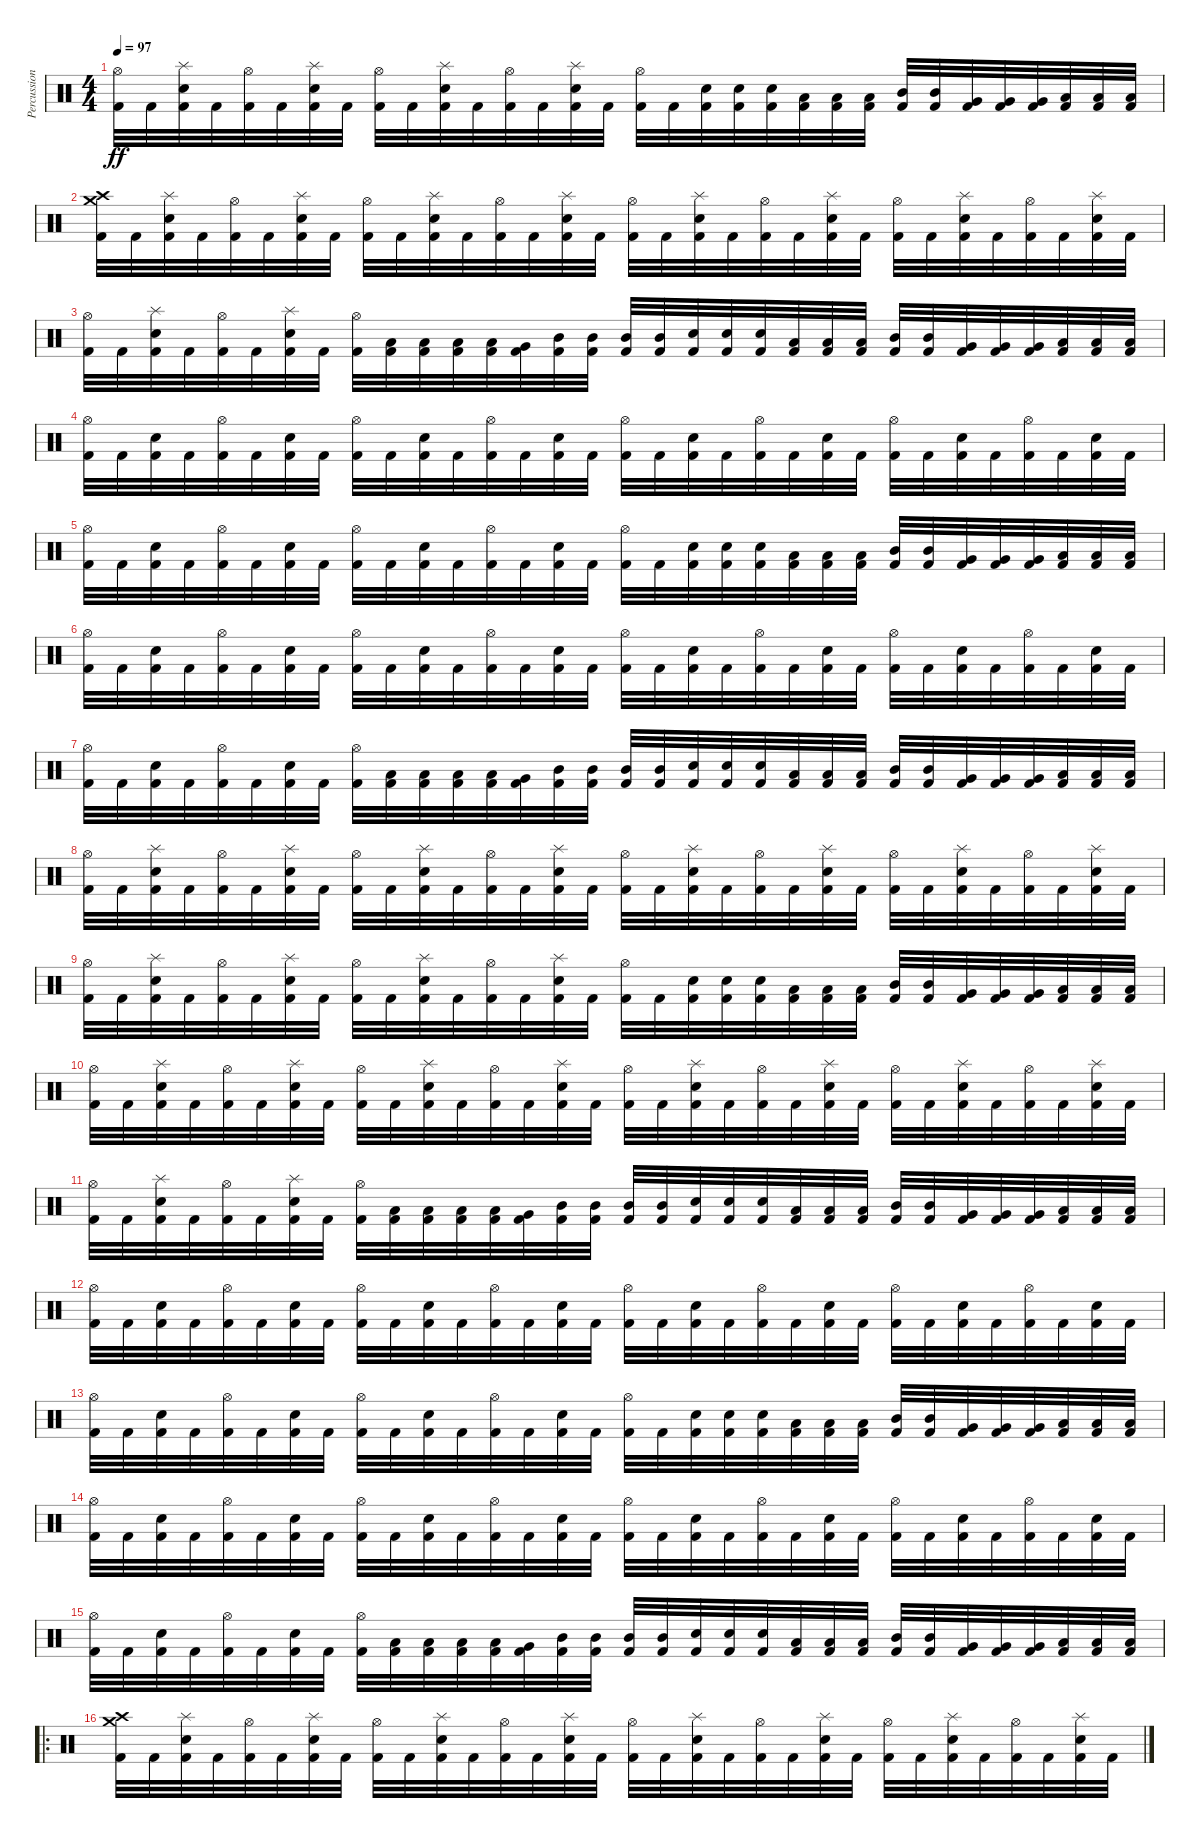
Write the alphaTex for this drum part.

\track ("Percussion" "Percussion") {instrument percussion}
\staff {score}
\articulation defaults
\ts (4 4)
\tempo 97
\clef neutral
\ks c
("Hi-Hat (open)" "Kick (hit) 2").32{dy ff} "Kick (hit) 2".32 ("Splash (hit)" "Snare (hit) 2" "Kick (hit) 2").32 "Kick (hit) 2".32 ("Hi-Hat (open)" "Kick (hit) 2").32 "Kick (hit) 2".32 ("Splash (hit)" "Snare (hit) 2" "Kick (hit) 2").32 "Kick (hit) 2".32 ("Hi-Hat (open)" "Kick (hit) 2").32 "Kick (hit) 2".32 ("Splash (hit)" "Snare (hit) 2" "Kick (hit) 2").32 "Kick (hit) 2".32 ("Hi-Hat (open)" "Kick (hit) 2").32 "Kick (hit) 2".32 ("Splash (hit)" "Snare (hit) 2" "Kick (hit) 2").32 "Kick (hit) 2".32 ("Hi-Hat (open)" "Kick (hit) 2").32 "Kick (hit) 2".32 ("Snare (hit) 2" "Kick (hit) 2").32 ("Snare (hit) 2" "Kick (hit) 2").32 ("Snare (hit) 2" "Kick (hit) 2").32 ("Low Tom (hit)" "Kick (hit) 2").32 ("Low Tom (hit)" "Kick (hit) 2").32 ("Low Tom (hit)" "Kick (hit) 2").32 ("Mid Tom (hit)" "Kick (hit) 2").32 ("Mid Tom (hit)" "Kick (hit) 2").32 ("Very Low Tom (hit)" "Kick (hit) 2").32 ("Very Low Tom (hit)" "Kick (hit) 2").32 ("Very Low Tom (hit)" "Kick (hit) 2").32 ("Low Floor Tom (hit)" "Kick (hit) 2").32 ("Low Floor Tom (hit)" "Kick (hit) 2").32 ("Low Floor Tom (hit)" "Kick (hit) 2").32 |
("Crash medium (hit)" "Crash high (hit)" "Kick (hit) 2").32 "Kick (hit) 2".32 ("Splash (hit)" "Snare (hit) 2" "Kick (hit) 2").32 "Kick (hit) 2".32 ("Hi-Hat (open)" "Kick (hit) 2").32 "Kick (hit) 2".32 ("Splash (hit)" "Snare (hit) 2" "Kick (hit) 2").32 "Kick (hit) 2".32 ("Hi-Hat (open)" "Kick (hit) 2").32 "Kick (hit) 2".32 ("Splash (hit)" "Snare (hit) 2" "Kick (hit) 2").32 "Kick (hit) 2".32 ("Hi-Hat (open)" "Kick (hit) 2").32 "Kick (hit) 2".32 ("Splash (hit)" "Snare (hit) 2" "Kick (hit) 2").32 "Kick (hit) 2".32 ("Hi-Hat (open)" "Kick (hit) 2").32 "Kick (hit) 2".32 ("Splash (hit)" "Snare (hit) 2" "Kick (hit) 2").32 "Kick (hit) 2".32 ("Hi-Hat (open)" "Kick (hit) 2").32 "Kick (hit) 2".32 ("Splash (hit)" "Snare (hit) 2" "Kick (hit) 2").32 "Kick (hit) 2".32 ("Hi-Hat (open)" "Kick (hit) 2").32 "Kick (hit) 2".32 ("Splash (hit)" "Snare (hit) 2" "Kick (hit) 2").32 "Kick (hit) 2".32 ("Hi-Hat (open)" "Kick (hit) 2").32 "Kick (hit) 2".32 ("Splash (hit)" "Snare (hit) 2" "Kick (hit) 2").32 "Kick (hit) 2".32 |
("Hi-Hat (open)" "Kick (hit) 2").32 "Kick (hit) 2".32 ("Splash (hit)" "Snare (hit) 2" "Kick (hit) 2").32 "Kick (hit) 2".32 ("Hi-Hat (open)" "Kick (hit) 2").32 "Kick (hit) 2".32 ("Splash (hit)" "Snare (hit) 2" "Kick (hit) 2").32 "Kick (hit) 2".32 ("Hi-Hat (open)" "Kick (hit) 2").32 ("Low Tom (hit)" "Kick (hit) 2").32 ("Low Floor Tom (hit)" "Kick (hit) 2").32 ("Low Floor Tom (hit)" "Kick (hit) 2").32 ("Low Floor Tom (hit)" "Kick (hit) 2").32 ("Very Low Tom (hit)" "Kick (hit) 2").32 ("Mid Tom (hit)" "Kick (hit) 2").32 ("Mid Tom (hit)" "Kick (hit) 2").32 ("Mid Tom (hit)" "Kick (hit) 2").32 ("Mid Tom (hit)" "Kick (hit) 2").32 ("Snare (hit) 2" "Kick (hit) 2").32 ("Snare (hit) 2" "Kick (hit) 2").32 ("Snare (hit) 2" "Kick (hit) 2").32 ("Low Tom (hit)" "Kick (hit) 2").32 ("Low Tom (hit)" "Kick (hit) 2").32 ("Low Tom (hit)" "Kick (hit) 2").32 ("Mid Tom (hit)" "Kick (hit) 2").32 ("Mid Tom (hit)" "Kick (hit) 2").32 ("Very Low Tom (hit)" "Kick (hit) 2").32 ("Very Low Tom (hit)" "Kick (hit) 2").32 ("Very Low Tom (hit)" "Kick (hit) 2").32 ("Low Floor Tom (hit)" "Kick (hit) 2").32 ("Low Floor Tom (hit)" "Kick (hit) 2").32 ("Low Floor Tom (hit)" "Kick (hit) 2").32 |
("Hi-Hat (open)" "Kick (hit) 2").32 "Kick (hit) 2".32 ("Snare (hit) 2" "Kick (hit) 2").32 "Kick (hit) 2".32 ("Hi-Hat (open)" "Kick (hit) 2").32 "Kick (hit) 2".32 ("Snare (hit) 2" "Kick (hit) 2").32 "Kick (hit) 2".32 ("Hi-Hat (open)" "Kick (hit) 2").32 "Kick (hit) 2".32 ("Snare (hit) 2" "Kick (hit) 2").32 "Kick (hit) 2".32 ("Hi-Hat (open)" "Kick (hit) 2").32 "Kick (hit) 2".32 ("Snare (hit) 2" "Kick (hit) 2").32 "Kick (hit) 2".32 ("Hi-Hat (open)" "Kick (hit) 2").32 "Kick (hit) 2".32 ("Snare (hit) 2" "Kick (hit) 2").32 "Kick (hit) 2".32 ("Hi-Hat (open)" "Kick (hit) 2").32 "Kick (hit) 2".32 ("Snare (hit) 2" "Kick (hit) 2").32 "Kick (hit) 2".32 ("Hi-Hat (open)" "Kick (hit) 2").32 "Kick (hit) 2".32 ("Snare (hit) 2" "Kick (hit) 2").32 "Kick (hit) 2".32 ("Hi-Hat (open)" "Kick (hit) 2").32 "Kick (hit) 2".32 ("Snare (hit) 2" "Kick (hit) 2").32 "Kick (hit) 2".32 |
("Hi-Hat (open)" "Kick (hit) 2").32 "Kick (hit) 2".32 ("Snare (hit) 2" "Kick (hit) 2").32 "Kick (hit) 2".32 ("Hi-Hat (open)" "Kick (hit) 2").32 "Kick (hit) 2".32 ("Snare (hit) 2" "Kick (hit) 2").32 "Kick (hit) 2".32 ("Hi-Hat (open)" "Kick (hit) 2").32 "Kick (hit) 2".32 ("Snare (hit) 2" "Kick (hit) 2").32 "Kick (hit) 2".32 ("Hi-Hat (open)" "Kick (hit) 2").32 "Kick (hit) 2".32 ("Snare (hit) 2" "Kick (hit) 2").32 "Kick (hit) 2".32 ("Hi-Hat (open)" "Kick (hit) 2").32 "Kick (hit) 2".32 ("Snare (hit) 2" "Kick (hit) 2").32 ("Snare (hit) 2" "Kick (hit) 2").32 ("Snare (hit) 2" "Kick (hit) 2").32 ("Low Tom (hit)" "Kick (hit) 2").32 ("Low Tom (hit)" "Kick (hit) 2").32 ("Low Tom (hit)" "Kick (hit) 2").32 ("Mid Tom (hit)" "Kick (hit) 2").32 ("Mid Tom (hit)" "Kick (hit) 2").32 ("Very Low Tom (hit)" "Kick (hit) 2").32 ("Very Low Tom (hit)" "Kick (hit) 2").32 ("Very Low Tom (hit)" "Kick (hit) 2").32 ("Low Floor Tom (hit)" "Kick (hit) 2").32 ("Low Floor Tom (hit)" "Kick (hit) 2").32 ("Low Floor Tom (hit)" "Kick (hit) 2").32 |
("Hi-Hat (open)" "Kick (hit) 2").32 "Kick (hit) 2".32 ("Snare (hit) 2" "Kick (hit) 2").32 "Kick (hit) 2".32 ("Hi-Hat (open)" "Kick (hit) 2").32 "Kick (hit) 2".32 ("Snare (hit) 2" "Kick (hit) 2").32 "Kick (hit) 2".32 ("Hi-Hat (open)" "Kick (hit) 2").32 "Kick (hit) 2".32 ("Snare (hit) 2" "Kick (hit) 2").32 "Kick (hit) 2".32 ("Hi-Hat (open)" "Kick (hit) 2").32 "Kick (hit) 2".32 ("Snare (hit) 2" "Kick (hit) 2").32 "Kick (hit) 2".32 ("Hi-Hat (open)" "Kick (hit) 2").32 "Kick (hit) 2".32 ("Snare (hit) 2" "Kick (hit) 2").32 "Kick (hit) 2".32 ("Hi-Hat (open)" "Kick (hit) 2").32 "Kick (hit) 2".32 ("Snare (hit) 2" "Kick (hit) 2").32 "Kick (hit) 2".32 ("Hi-Hat (open)" "Kick (hit) 2").32 "Kick (hit) 2".32 ("Snare (hit) 2" "Kick (hit) 2").32 "Kick (hit) 2".32 ("Hi-Hat (open)" "Kick (hit) 2").32 "Kick (hit) 2".32 ("Snare (hit) 2" "Kick (hit) 2").32 "Kick (hit) 2".32 |
("Hi-Hat (open)" "Kick (hit) 2").32 "Kick (hit) 2".32 ("Snare (hit) 2" "Kick (hit) 2").32 "Kick (hit) 2".32 ("Hi-Hat (open)" "Kick (hit) 2").32 "Kick (hit) 2".32 ("Snare (hit) 2" "Kick (hit) 2").32 "Kick (hit) 2".32 ("Hi-Hat (open)" "Kick (hit) 2").32 ("Low Tom (hit)" "Kick (hit) 2").32 ("Low Floor Tom (hit)" "Kick (hit) 2").32 ("Low Floor Tom (hit)" "Kick (hit) 2").32 ("Low Floor Tom (hit)" "Kick (hit) 2").32 ("Very Low Tom (hit)" "Kick (hit) 2").32 ("Mid Tom (hit)" "Kick (hit) 2").32 ("Mid Tom (hit)" "Kick (hit) 2").32 ("Mid Tom (hit)" "Kick (hit) 2").32 ("Mid Tom (hit)" "Kick (hit) 2").32 ("Snare (hit) 2" "Kick (hit) 2").32 ("Snare (hit) 2" "Kick (hit) 2").32 ("Snare (hit) 2" "Kick (hit) 2").32 ("Low Tom (hit)" "Kick (hit) 2").32 ("Low Tom (hit)" "Kick (hit) 2").32 ("Low Tom (hit)" "Kick (hit) 2").32 ("Mid Tom (hit)" "Kick (hit) 2").32 ("Mid Tom (hit)" "Kick (hit) 2").32 ("Very Low Tom (hit)" "Kick (hit) 2").32 ("Very Low Tom (hit)" "Kick (hit) 2").32 ("Very Low Tom (hit)" "Kick (hit) 2").32 ("Low Floor Tom (hit)" "Kick (hit) 2").32 ("Low Floor Tom (hit)" "Kick (hit) 2").32 ("Low Floor Tom (hit)" "Kick (hit) 2").32 |
("Hi-Hat (open)" "Kick (hit) 2").32 "Kick (hit) 2".32 ("Splash (hit)" "Snare (hit) 2" "Kick (hit) 2").32 "Kick (hit) 2".32 ("Hi-Hat (open)" "Kick (hit) 2").32 "Kick (hit) 2".32 ("Splash (hit)" "Snare (hit) 2" "Kick (hit) 2").32 "Kick (hit) 2".32 ("Hi-Hat (open)" "Kick (hit) 2").32 "Kick (hit) 2".32 ("Splash (hit)" "Snare (hit) 2" "Kick (hit) 2").32 "Kick (hit) 2".32 ("Hi-Hat (open)" "Kick (hit) 2").32 "Kick (hit) 2".32 ("Splash (hit)" "Snare (hit) 2" "Kick (hit) 2").32 "Kick (hit) 2".32 ("Hi-Hat (open)" "Kick (hit) 2").32 "Kick (hit) 2".32 ("Splash (hit)" "Snare (hit) 2" "Kick (hit) 2").32 "Kick (hit) 2".32 ("Hi-Hat (open)" "Kick (hit) 2").32 "Kick (hit) 2".32 ("Splash (hit)" "Snare (hit) 2" "Kick (hit) 2").32 "Kick (hit) 2".32 ("Hi-Hat (open)" "Kick (hit) 2").32 "Kick (hit) 2".32 ("Splash (hit)" "Snare (hit) 2" "Kick (hit) 2").32 "Kick (hit) 2".32 ("Hi-Hat (open)" "Kick (hit) 2").32 "Kick (hit) 2".32 ("Splash (hit)" "Snare (hit) 2" "Kick (hit) 2").32 "Kick (hit) 2".32 |
("Hi-Hat (open)" "Kick (hit) 2").32 "Kick (hit) 2".32 ("Splash (hit)" "Snare (hit) 2" "Kick (hit) 2").32 "Kick (hit) 2".32 ("Hi-Hat (open)" "Kick (hit) 2").32 "Kick (hit) 2".32 ("Splash (hit)" "Snare (hit) 2" "Kick (hit) 2").32 "Kick (hit) 2".32 ("Hi-Hat (open)" "Kick (hit) 2").32 "Kick (hit) 2".32 ("Splash (hit)" "Snare (hit) 2" "Kick (hit) 2").32 "Kick (hit) 2".32 ("Hi-Hat (open)" "Kick (hit) 2").32 "Kick (hit) 2".32 ("Splash (hit)" "Snare (hit) 2" "Kick (hit) 2").32 "Kick (hit) 2".32 ("Hi-Hat (open)" "Kick (hit) 2").32 "Kick (hit) 2".32 ("Snare (hit) 2" "Kick (hit) 2").32 ("Snare (hit) 2" "Kick (hit) 2").32 ("Snare (hit) 2" "Kick (hit) 2").32 ("Low Tom (hit)" "Kick (hit) 2").32 ("Low Tom (hit)" "Kick (hit) 2").32 ("Low Tom (hit)" "Kick (hit) 2").32 ("Mid Tom (hit)" "Kick (hit) 2").32 ("Mid Tom (hit)" "Kick (hit) 2").32 ("Very Low Tom (hit)" "Kick (hit) 2").32 ("Very Low Tom (hit)" "Kick (hit) 2").32 ("Very Low Tom (hit)" "Kick (hit) 2").32 ("Low Floor Tom (hit)" "Kick (hit) 2").32 ("Low Floor Tom (hit)" "Kick (hit) 2").32 ("Low Floor Tom (hit)" "Kick (hit) 2").32 |
("Hi-Hat (open)" "Kick (hit) 2").32 "Kick (hit) 2".32 ("Splash (hit)" "Snare (hit) 2" "Kick (hit) 2").32 "Kick (hit) 2".32 ("Hi-Hat (open)" "Kick (hit) 2").32 "Kick (hit) 2".32 ("Splash (hit)" "Snare (hit) 2" "Kick (hit) 2").32 "Kick (hit) 2".32 ("Hi-Hat (open)" "Kick (hit) 2").32 "Kick (hit) 2".32 ("Splash (hit)" "Snare (hit) 2" "Kick (hit) 2").32 "Kick (hit) 2".32 ("Hi-Hat (open)" "Kick (hit) 2").32 "Kick (hit) 2".32 ("Splash (hit)" "Snare (hit) 2" "Kick (hit) 2").32 "Kick (hit) 2".32 ("Hi-Hat (open)" "Kick (hit) 2").32 "Kick (hit) 2".32 ("Splash (hit)" "Snare (hit) 2" "Kick (hit) 2").32 "Kick (hit) 2".32 ("Hi-Hat (open)" "Kick (hit) 2").32 "Kick (hit) 2".32 ("Splash (hit)" "Snare (hit) 2" "Kick (hit) 2").32 "Kick (hit) 2".32 ("Hi-Hat (open)" "Kick (hit) 2").32 "Kick (hit) 2".32 ("Splash (hit)" "Snare (hit) 2" "Kick (hit) 2").32 "Kick (hit) 2".32 ("Hi-Hat (open)" "Kick (hit) 2").32 "Kick (hit) 2".32 ("Splash (hit)" "Snare (hit) 2" "Kick (hit) 2").32 "Kick (hit) 2".32 |
("Hi-Hat (open)" "Kick (hit) 2").32 "Kick (hit) 2".32 ("Splash (hit)" "Snare (hit) 2" "Kick (hit) 2").32 "Kick (hit) 2".32 ("Hi-Hat (open)" "Kick (hit) 2").32 "Kick (hit) 2".32 ("Splash (hit)" "Snare (hit) 2" "Kick (hit) 2").32 "Kick (hit) 2".32 ("Hi-Hat (open)" "Kick (hit) 2").32 ("Low Tom (hit)" "Kick (hit) 2").32 ("Low Floor Tom (hit)" "Kick (hit) 2").32 ("Low Floor Tom (hit)" "Kick (hit) 2").32 ("Low Floor Tom (hit)" "Kick (hit) 2").32 ("Very Low Tom (hit)" "Kick (hit) 2").32 ("Mid Tom (hit)" "Kick (hit) 2").32 ("Mid Tom (hit)" "Kick (hit) 2").32 ("Mid Tom (hit)" "Kick (hit) 2").32 ("Mid Tom (hit)" "Kick (hit) 2").32 ("Snare (hit) 2" "Kick (hit) 2").32 ("Snare (hit) 2" "Kick (hit) 2").32 ("Snare (hit) 2" "Kick (hit) 2").32 ("Low Tom (hit)" "Kick (hit) 2").32 ("Low Tom (hit)" "Kick (hit) 2").32 ("Low Tom (hit)" "Kick (hit) 2").32 ("Mid Tom (hit)" "Kick (hit) 2").32 ("Mid Tom (hit)" "Kick (hit) 2").32 ("Very Low Tom (hit)" "Kick (hit) 2").32 ("Very Low Tom (hit)" "Kick (hit) 2").32 ("Very Low Tom (hit)" "Kick (hit) 2").32 ("Low Floor Tom (hit)" "Kick (hit) 2").32 ("Low Floor Tom (hit)" "Kick (hit) 2").32 ("Low Floor Tom (hit)" "Kick (hit) 2").32 |
("Hi-Hat (open)" "Kick (hit) 2").32 "Kick (hit) 2".32 ("Snare (hit) 2" "Kick (hit) 2").32 "Kick (hit) 2".32 ("Hi-Hat (open)" "Kick (hit) 2").32 "Kick (hit) 2".32 ("Snare (hit) 2" "Kick (hit) 2").32 "Kick (hit) 2".32 ("Hi-Hat (open)" "Kick (hit) 2").32 "Kick (hit) 2".32 ("Snare (hit) 2" "Kick (hit) 2").32 "Kick (hit) 2".32 ("Hi-Hat (open)" "Kick (hit) 2").32 "Kick (hit) 2".32 ("Snare (hit) 2" "Kick (hit) 2").32 "Kick (hit) 2".32 ("Hi-Hat (open)" "Kick (hit) 2").32 "Kick (hit) 2".32 ("Snare (hit) 2" "Kick (hit) 2").32 "Kick (hit) 2".32 ("Hi-Hat (open)" "Kick (hit) 2").32 "Kick (hit) 2".32 ("Snare (hit) 2" "Kick (hit) 2").32 "Kick (hit) 2".32 ("Hi-Hat (open)" "Kick (hit) 2").32 "Kick (hit) 2".32 ("Snare (hit) 2" "Kick (hit) 2").32 "Kick (hit) 2".32 ("Hi-Hat (open)" "Kick (hit) 2").32 "Kick (hit) 2".32 ("Snare (hit) 2" "Kick (hit) 2").32 "Kick (hit) 2".32 |
("Hi-Hat (open)" "Kick (hit) 2").32 "Kick (hit) 2".32 ("Snare (hit) 2" "Kick (hit) 2").32 "Kick (hit) 2".32 ("Hi-Hat (open)" "Kick (hit) 2").32 "Kick (hit) 2".32 ("Snare (hit) 2" "Kick (hit) 2").32 "Kick (hit) 2".32 ("Hi-Hat (open)" "Kick (hit) 2").32 "Kick (hit) 2".32 ("Snare (hit) 2" "Kick (hit) 2").32 "Kick (hit) 2".32 ("Hi-Hat (open)" "Kick (hit) 2").32 "Kick (hit) 2".32 ("Snare (hit) 2" "Kick (hit) 2").32 "Kick (hit) 2".32 ("Hi-Hat (open)" "Kick (hit) 2").32 "Kick (hit) 2".32 ("Snare (hit) 2" "Kick (hit) 2").32 ("Snare (hit) 2" "Kick (hit) 2").32 ("Snare (hit) 2" "Kick (hit) 2").32 ("Low Tom (hit)" "Kick (hit) 2").32 ("Low Tom (hit)" "Kick (hit) 2").32 ("Low Tom (hit)" "Kick (hit) 2").32 ("Mid Tom (hit)" "Kick (hit) 2").32 ("Mid Tom (hit)" "Kick (hit) 2").32 ("Very Low Tom (hit)" "Kick (hit) 2").32 ("Very Low Tom (hit)" "Kick (hit) 2").32 ("Very Low Tom (hit)" "Kick (hit) 2").32 ("Low Floor Tom (hit)" "Kick (hit) 2").32 ("Low Floor Tom (hit)" "Kick (hit) 2").32 ("Low Floor Tom (hit)" "Kick (hit) 2").32 |
("Hi-Hat (open)" "Kick (hit) 2").32 "Kick (hit) 2".32 ("Snare (hit) 2" "Kick (hit) 2").32 "Kick (hit) 2".32 ("Hi-Hat (open)" "Kick (hit) 2").32 "Kick (hit) 2".32 ("Snare (hit) 2" "Kick (hit) 2").32 "Kick (hit) 2".32 ("Hi-Hat (open)" "Kick (hit) 2").32 "Kick (hit) 2".32 ("Snare (hit) 2" "Kick (hit) 2").32 "Kick (hit) 2".32 ("Hi-Hat (open)" "Kick (hit) 2").32 "Kick (hit) 2".32 ("Snare (hit) 2" "Kick (hit) 2").32 "Kick (hit) 2".32 ("Hi-Hat (open)" "Kick (hit) 2").32 "Kick (hit) 2".32 ("Snare (hit) 2" "Kick (hit) 2").32 "Kick (hit) 2".32 ("Hi-Hat (open)" "Kick (hit) 2").32 "Kick (hit) 2".32 ("Snare (hit) 2" "Kick (hit) 2").32 "Kick (hit) 2".32 ("Hi-Hat (open)" "Kick (hit) 2").32 "Kick (hit) 2".32 ("Snare (hit) 2" "Kick (hit) 2").32 "Kick (hit) 2".32 ("Hi-Hat (open)" "Kick (hit) 2").32 "Kick (hit) 2".32 ("Snare (hit) 2" "Kick (hit) 2").32 "Kick (hit) 2".32 |
("Hi-Hat (open)" "Kick (hit) 2").32 "Kick (hit) 2".32 ("Snare (hit) 2" "Kick (hit) 2").32 "Kick (hit) 2".32 ("Hi-Hat (open)" "Kick (hit) 2").32 "Kick (hit) 2".32 ("Snare (hit) 2" "Kick (hit) 2").32 "Kick (hit) 2".32 ("Hi-Hat (open)" "Kick (hit) 2").32 ("Low Tom (hit)" "Kick (hit) 2").32 ("Low Floor Tom (hit)" "Kick (hit) 2").32 ("Low Floor Tom (hit)" "Kick (hit) 2").32 ("Low Floor Tom (hit)" "Kick (hit) 2").32 ("Very Low Tom (hit)" "Kick (hit) 2").32 ("Mid Tom (hit)" "Kick (hit) 2").32 ("Mid Tom (hit)" "Kick (hit) 2").32 ("Mid Tom (hit)" "Kick (hit) 2").32 ("Mid Tom (hit)" "Kick (hit) 2").32 ("Snare (hit) 2" "Kick (hit) 2").32 ("Snare (hit) 2" "Kick (hit) 2").32 ("Snare (hit) 2" "Kick (hit) 2").32 ("Low Tom (hit)" "Kick (hit) 2").32 ("Low Tom (hit)" "Kick (hit) 2").32 ("Low Tom (hit)" "Kick (hit) 2").32 ("Mid Tom (hit)" "Kick (hit) 2").32 ("Mid Tom (hit)" "Kick (hit) 2").32 ("Very Low Tom (hit)" "Kick (hit) 2").32 ("Very Low Tom (hit)" "Kick (hit) 2").32 ("Very Low Tom (hit)" "Kick (hit) 2").32 ("Low Floor Tom (hit)" "Kick (hit) 2").32 ("Low Floor Tom (hit)" "Kick (hit) 2").32 ("Low Floor Tom (hit)" "Kick (hit) 2").32 |
\ro
("Crash medium (hit)" "Crash high (hit)" "Kick (hit) 2").32 "Kick (hit) 2".32 ("Splash (hit)" "Snare (hit) 2" "Kick (hit) 2").32 "Kick (hit) 2".32 ("Hi-Hat (open)" "Kick (hit) 2").32 "Kick (hit) 2".32 ("Splash (hit)" "Snare (hit) 2" "Kick (hit) 2").32 "Kick (hit) 2".32 ("Hi-Hat (open)" "Kick (hit) 2").32 "Kick (hit) 2".32 ("Splash (hit)" "Snare (hit) 2" "Kick (hit) 2").32 "Kick (hit) 2".32 ("Hi-Hat (open)" "Kick (hit) 2").32 "Kick (hit) 2".32 ("Splash (hit)" "Snare (hit) 2" "Kick (hit) 2").32 "Kick (hit) 2".32 ("Hi-Hat (open)" "Kick (hit) 2").32 "Kick (hit) 2".32 ("Splash (hit)" "Snare (hit) 2" "Kick (hit) 2").32 "Kick (hit) 2".32 ("Hi-Hat (open)" "Kick (hit) 2").32 "Kick (hit) 2".32 ("Splash (hit)" "Snare (hit) 2" "Kick (hit) 2").32 "Kick (hit) 2".32 ("Hi-Hat (open)" "Kick (hit) 2").32 "Kick (hit) 2".32 ("Splash (hit)" "Snare (hit) 2" "Kick (hit) 2").32 "Kick (hit) 2".32 ("Hi-Hat (open)" "Kick (hit) 2").32 "Kick (hit) 2".32 ("Splash (hit)" "Snare (hit) 2" "Kick (hit) 2").32 "Kick (hit) 2".32
